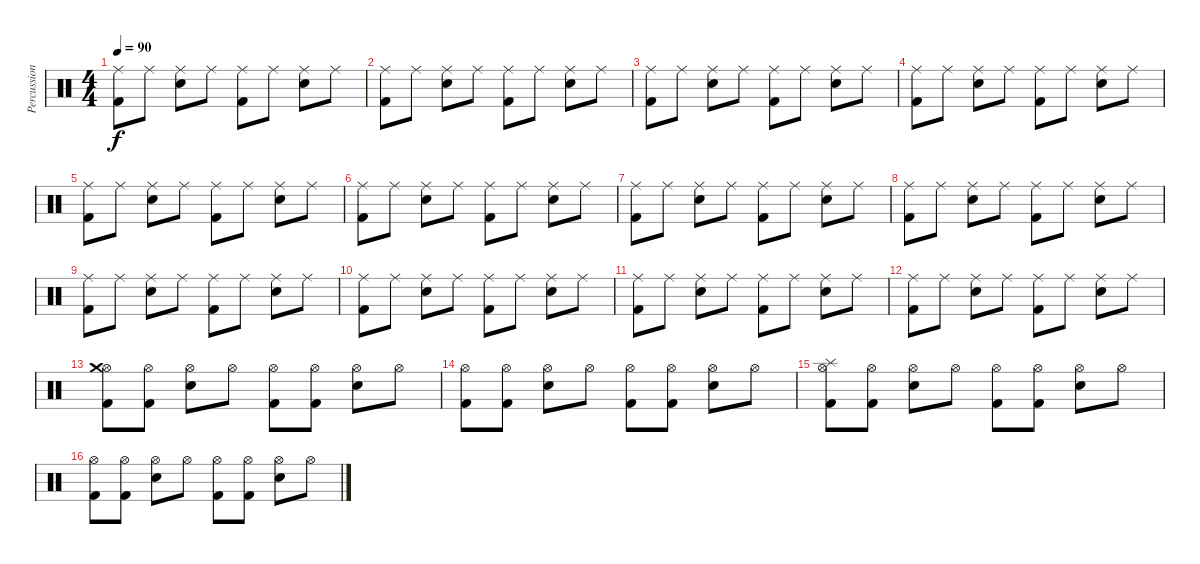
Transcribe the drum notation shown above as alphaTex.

\track ("Percussion" "Percussion") {instrument percussion}
\staff {score}
\articulation defaults
\ts (4 4)
\tempo 90
\clef neutral
\ks c
("Ride (middle)" "Kick (hit) 2").8{dy f} "Ride (middle)".8 ("Ride (middle)" "Snare (hit) 2").8 "Ride (middle)".8 ("Ride (middle)" "Kick (hit) 2").8 "Ride (middle)".8 ("Ride (middle)" "Snare (hit) 2").8 "Ride (middle)".8 |
("Ride (middle)" "Kick (hit) 2").8 "Ride (middle)".8 ("Ride (middle)" "Snare (hit) 2").8 "Ride (middle)".8 ("Ride (middle)" "Kick (hit) 2").8 "Ride (middle)".8 ("Ride (middle)" "Snare (hit) 2").8 "Ride (middle)".8 |
("Ride (middle)" "Kick (hit) 2").8 "Ride (middle)".8 ("Ride (middle)" "Snare (hit) 2").8 "Ride (middle)".8 ("Ride (middle)" "Kick (hit) 2").8 "Ride (middle)".8 ("Ride (middle)" "Snare (hit) 2").8 "Ride (middle)".8 |
("Ride (middle)" "Kick (hit) 2").8 "Ride (middle)".8 ("Ride (middle)" "Snare (hit) 2").8 "Ride (middle)".8 ("Ride (middle)" "Kick (hit) 2").8 "Ride (middle)".8 ("Ride (middle)" "Snare (hit) 2").8 "Ride (middle)".8 |
("Ride (middle)" "Kick (hit) 2").8 "Ride (middle)".8 ("Ride (middle)" "Snare (hit) 2").8 "Ride (middle)".8 ("Ride (middle)" "Kick (hit) 2").8 "Ride (middle)".8 ("Ride (middle)" "Snare (hit) 2").8 "Ride (middle)".8 |
("Ride (middle)" "Kick (hit) 2").8 "Ride (middle)".8 ("Ride (middle)" "Snare (hit) 2").8 "Ride (middle)".8 ("Ride (middle)" "Kick (hit) 2").8 "Ride (middle)".8 ("Ride (middle)" "Snare (hit) 2").8 "Ride (middle)".8 |
("Ride (middle)" "Kick (hit) 2").8 "Ride (middle)".8 ("Ride (middle)" "Snare (hit) 2").8 "Ride (middle)".8 ("Ride (middle)" "Kick (hit) 2").8 "Ride (middle)".8 ("Ride (middle)" "Snare (hit) 2").8 "Ride (middle)".8 |
("Ride (middle)" "Kick (hit) 2").8 "Ride (middle)".8 ("Ride (middle)" "Snare (hit) 2").8 "Ride (middle)".8 ("Ride (middle)" "Kick (hit) 2").8 "Ride (middle)".8 ("Ride (middle)" "Snare (hit) 2").8 "Ride (middle)".8 |
("Ride (middle)" "Kick (hit) 2").8 "Ride (middle)".8 ("Ride (middle)" "Snare (hit) 2").8 "Ride (middle)".8 ("Ride (middle)" "Kick (hit) 2").8 "Ride (middle)".8 ("Ride (middle)" "Snare (hit) 2").8 "Ride (middle)".8 |
("Ride (middle)" "Kick (hit) 2").8 "Ride (middle)".8 ("Ride (middle)" "Snare (hit) 2").8 "Ride (middle)".8 ("Ride (middle)" "Kick (hit) 2").8 "Ride (middle)".8 ("Ride (middle)" "Snare (hit) 2").8 "Ride (middle)".8 |
("Ride (middle)" "Kick (hit) 2").8 "Ride (middle)".8 ("Ride (middle)" "Snare (hit) 2").8 "Ride (middle)".8 ("Ride (middle)" "Kick (hit) 2").8 "Ride (middle)".8 ("Ride (middle)" "Snare (hit) 2").8 "Ride (middle)".8 |
("Ride (middle)" "Kick (hit) 2").8 "Ride (middle)".8 ("Ride (middle)" "Snare (hit) 2").8 "Ride (middle)".8 ("Ride (middle)" "Kick (hit) 2").8 "Ride (middle)".8 ("Ride (middle)" "Snare (hit) 2").8 "Ride (middle)".8 |
("Hi-Hat (open)" "Crash medium (hit)" "Kick (hit) 2").8 ("Hi-Hat (open)" "Kick (hit) 2").8 ("Hi-Hat (open)" "Snare (hit) 2").8 "Hi-Hat (open)".8 ("Hi-Hat (open)" "Kick (hit) 2").8 ("Hi-Hat (open)" "Kick (hit) 2").8 ("Hi-Hat (open)" "Snare (hit) 2").8 "Hi-Hat (open)".8 |
("Hi-Hat (open)" "Kick (hit) 2").8 ("Hi-Hat (open)" "Kick (hit) 2").8 ("Hi-Hat (open)" "Snare (hit) 2").8 "Hi-Hat (open)".8 ("Hi-Hat (open)" "Kick (hit) 2").8 ("Hi-Hat (open)" "Kick (hit) 2").8 ("Hi-Hat (open)" "Snare (hit) 2").8 "Hi-Hat (open)".8 |
("Hi-Hat (open)" "Splash (hit)" "Kick (hit) 2").8 ("Hi-Hat (open)" "Kick (hit) 2").8 ("Hi-Hat (open)" "Snare (hit) 2").8 "Hi-Hat (open)".8 ("Hi-Hat (open)" "Kick (hit) 2").8 ("Hi-Hat (open)" "Kick (hit) 2").8 ("Hi-Hat (open)" "Snare (hit) 2").8 "Hi-Hat (open)".8 |
("Hi-Hat (open)" "Kick (hit) 2").8 ("Hi-Hat (open)" "Kick (hit) 2").8 ("Hi-Hat (open)" "Snare (hit) 2").8 "Hi-Hat (open)".8 ("Hi-Hat (open)" "Kick (hit) 2").8 ("Hi-Hat (open)" "Kick (hit) 2").8 ("Hi-Hat (open)" "Snare (hit) 2").8 "Hi-Hat (open)".8
